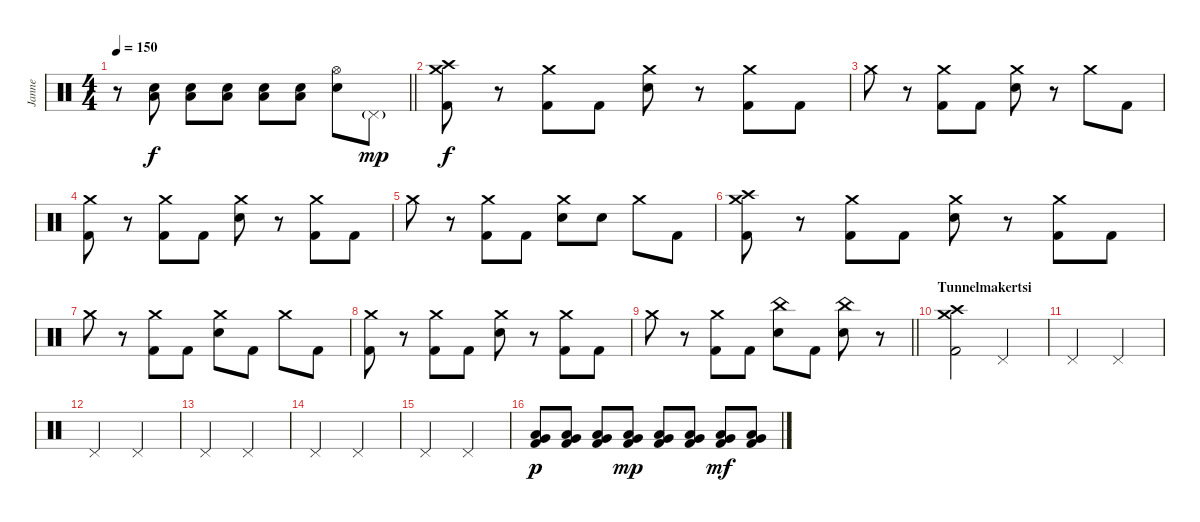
\track ("Janne" "Janne") {instrument percussion}
\staff {score}
\articulation defaults
\ts (4 4)
\tempo 150
\clef neutral
\barLineRight lightlight
\ks c
r.8{dy f} ("Electric Snare (hit)" "Low Floor Tom (hit)").8 ("Electric Snare (hit)" "Low Floor Tom (hit)").8 ("Electric Snare (hit)" "Low Floor Tom (hit)").8 ("Electric Snare (hit)" "Low Floor Tom (hit)").8 ("Electric Snare (hit)" "Low Floor Tom (hit)").8 ("Hi-Hat (open)" "Electric Snare (hit)").8 "Pedal Hi-Hat (hit)"{g}.8{dy mp} |
\section ("" "")
("Crash high (hit)" "Crash medium (hit)" "Kick (hit) 2").8{dy f} r.8 ("Crash medium (hit)" "Kick (hit) 2").8 "Kick (hit) 2".8 ("Crash medium (hit)" "Electric Snare (hit)").8 r.8 ("Crash medium (hit)" "Kick (hit) 2").8 "Kick (hit) 2".8 |
"Crash medium (hit)".8 r.8 ("Crash medium (hit)" "Kick (hit) 2").8 "Kick (hit) 2".8 ("Crash medium (hit)" "Electric Snare (hit)").8 r.8 "Crash medium (hit)".8 "Kick (hit) 2".8 |
("Crash medium (hit)" "Kick (hit) 2").8 r.8 ("Crash medium (hit)" "Kick (hit) 2").8 "Kick (hit) 2".8 ("Crash medium (hit)" "Electric Snare (hit)").8 r.8 ("Crash medium (hit)" "Kick (hit) 2").8 "Kick (hit) 2".8 |
"Crash medium (hit)".8 r.8 ("Crash medium (hit)" "Kick (hit) 2").8 "Kick (hit) 2".8 ("Crash medium (hit)" "Electric Snare (hit)").8 "Electric Snare (hit)".8 "Crash medium (hit)".8 "Kick (hit) 2".8 |
("Crash high (hit)" "Crash medium (hit)" "Kick (hit) 2").8 r.8 ("Crash medium (hit)" "Kick (hit) 2").8 "Kick (hit) 2".8 ("Crash medium (hit)" "Electric Snare (hit)").8 r.8 ("Crash medium (hit)" "Kick (hit) 2").8 "Kick (hit) 2".8 |
"Crash medium (hit)".8 r.8 ("Crash medium (hit)" "Kick (hit) 2").8 "Kick (hit) 2".8 ("Crash medium (hit)" "Electric Snare (hit)").8 "Kick (hit) 2".8 "Crash medium (hit)".8 "Kick (hit) 2".8 |
("Crash medium (hit)" "Kick (hit) 2").8 r.8 ("Crash medium (hit)" "Kick (hit) 2").8 "Kick (hit) 2".8 ("Crash medium (hit)" "Electric Snare (hit)").8 r.8 ("Crash medium (hit)" "Kick (hit) 2").8 "Kick (hit) 2".8 |
\barLineRight lightlight "Crash medium (hit)".8
r.8 ("Crash medium (hit)" "Kick (hit) 2").8 "Kick (hit) 2".8 ("China (hit)" "Electric Snare (hit)").8 "Kick (hit) 2".8 ("China (hit)" "Electric Snare (hit)").8 r.8 |
\section ("" "Tunnelmakertsi")
("Crash high (hit)" "Crash medium (hit)" "Kick (hit) 2").2 "Pedal Hi-Hat (hit)".2 |
"Pedal Hi-Hat (hit)".2 "Pedal Hi-Hat (hit)".2 |
"Pedal Hi-Hat (hit)".2 "Pedal Hi-Hat (hit)".2 |
"Pedal Hi-Hat (hit)".2 "Pedal Hi-Hat (hit)".2 |
"Pedal Hi-Hat (hit)".2 "Pedal Hi-Hat (hit)".2 |
"Pedal Hi-Hat (hit)".2 "Pedal Hi-Hat (hit)".2 |
("Very Low Tom (hit)" "Low Floor Tom (hit)" "Kick (hit) 2").8{dy p} ("Very Low Tom (hit)" "Low Floor Tom (hit)" "Kick (hit) 2").8 ("Very Low Tom (hit)" "Low Floor Tom (hit)" "Kick (hit) 2").8 ("Very Low Tom (hit)" "Low Floor Tom (hit)" "Kick (hit) 2").8{dy mp} ("Very Low Tom (hit)" "Low Floor Tom (hit)" "Kick (hit) 2").8 ("Very Low Tom (hit)" "Low Floor Tom (hit)" "Kick (hit) 2").8 ("Very Low Tom (hit)" "Low Floor Tom (hit)" "Kick (hit) 2").8{dy mf} ("Very Low Tom (hit)" "Low Floor Tom (hit)" "Kick (hit) 2").8
